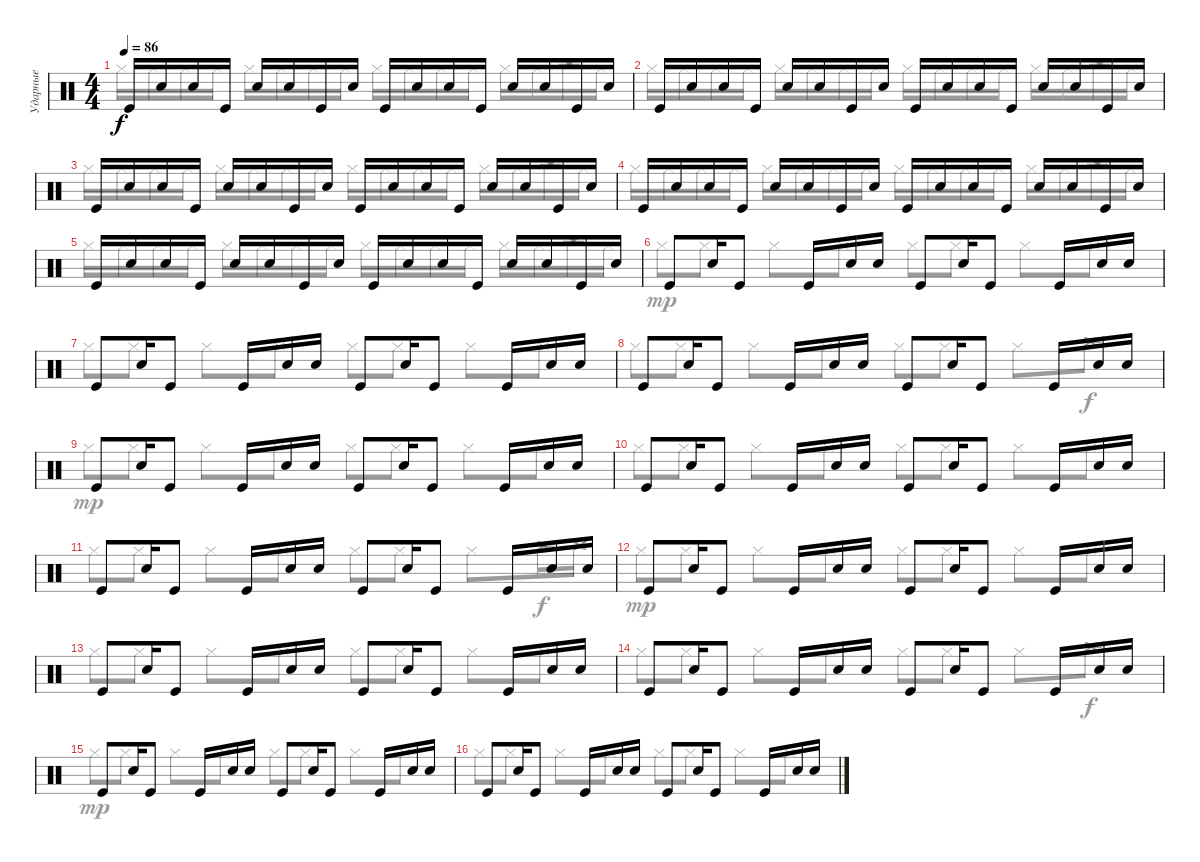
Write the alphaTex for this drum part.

\track ("Ударные" "Ударные") {instrument percussion}
\staff {score}
\articulation defaults
\voice
\ts (4 4)
\tempo 86
\clef neutral
\ks c "Kick (hit)".16{dy f} "Electric Snare (hit)".16 "Electric Snare (hit)".16 "Kick (hit)".16 "Electric Snare (hit)".16 "Electric Snare (hit)".16 "Kick (hit)".16 "Electric Snare (hit)".16 "Kick (hit)".16 "Electric Snare (hit)".16 "Electric Snare (hit)".16 "Kick (hit)".16 "Electric Snare (hit)".16 "Electric Snare (hit)".16 "Kick (hit)".16 "Electric Snare (hit)".16
|
"Kick (hit)".16 "Electric Snare (hit)".16 "Electric Snare (hit)".16 "Kick (hit)".16 "Electric Snare (hit)".16 "Electric Snare (hit)".16 "Kick (hit)".16 "Electric Snare (hit)".16 "Kick (hit)".16 "Electric Snare (hit)".16 "Electric Snare (hit)".16 "Kick (hit)".16 "Electric Snare (hit)".16 "Electric Snare (hit)".16 "Kick (hit)".16 "Electric Snare (hit)".16 |
"Kick (hit)".16 "Electric Snare (hit)".16 "Electric Snare (hit)".16 "Kick (hit)".16 "Electric Snare (hit)".16 "Electric Snare (hit)".16 "Kick (hit)".16 "Electric Snare (hit)".16 "Kick (hit)".16 "Electric Snare (hit)".16 "Electric Snare (hit)".16 "Kick (hit)".16 "Electric Snare (hit)".16 "Electric Snare (hit)".16 "Kick (hit)".16 "Electric Snare (hit)".16 |
"Kick (hit)".16 "Electric Snare (hit)".16 "Electric Snare (hit)".16 "Kick (hit)".16 "Electric Snare (hit)".16 "Electric Snare (hit)".16 "Kick (hit)".16 "Electric Snare (hit)".16 "Kick (hit)".16 "Electric Snare (hit)".16 "Electric Snare (hit)".16 "Kick (hit)".16 "Electric Snare (hit)".16 "Electric Snare (hit)".16 "Kick (hit)".16 "Electric Snare (hit)".16 |
"Kick (hit)".16 "Electric Snare (hit)".16 "Electric Snare (hit)".16 "Kick (hit)".16 "Electric Snare (hit)".16 "Electric Snare (hit)".16 "Kick (hit)".16 "Electric Snare (hit)".16 "Kick (hit)".16 "Electric Snare (hit)".16 "Electric Snare (hit)".16 "Kick (hit)".16 "Electric Snare (hit)".16 "Electric Snare (hit)".16 "Kick (hit)".16 "Electric Snare (hit)".16 |
"Kick (hit)".8 "Electric Snare (hit)".16 "Kick (hit)".8 "Kick (hit)".16 "Electric Snare (hit)".16 "Electric Snare (hit)".16 "Kick (hit)".8 "Electric Snare (hit)".16 "Kick (hit)".8 "Kick (hit)".16 "Electric Snare (hit)".16 "Electric Snare (hit)".16 |
"Kick (hit)".8 "Electric Snare (hit)".16 "Kick (hit)".8 "Kick (hit)".16 "Electric Snare (hit)".16 "Electric Snare (hit)".16 "Kick (hit)".8 "Electric Snare (hit)".16 "Kick (hit)".8 "Kick (hit)".16 "Electric Snare (hit)".16 "Electric Snare (hit)".16 |
"Kick (hit)".8 "Electric Snare (hit)".16 "Kick (hit)".8 "Kick (hit)".16 "Electric Snare (hit)".16 "Electric Snare (hit)".16 "Kick (hit)".8 "Electric Snare (hit)".16 "Kick (hit)".8 "Kick (hit)".16 "Electric Snare (hit)".16 "Electric Snare (hit)".16 |
"Kick (hit)".8 "Electric Snare (hit)".16 "Kick (hit)".8 "Kick (hit)".16 "Electric Snare (hit)".16 "Electric Snare (hit)".16 "Kick (hit)".8 "Electric Snare (hit)".16 "Kick (hit)".8 "Kick (hit)".16 "Electric Snare (hit)".16 "Electric Snare (hit)".16 |
"Kick (hit)".8 "Electric Snare (hit)".16 "Kick (hit)".8 "Kick (hit)".16 "Electric Snare (hit)".16 "Electric Snare (hit)".16 "Kick (hit)".8 "Electric Snare (hit)".16 "Kick (hit)".8 "Kick (hit)".16 "Electric Snare (hit)".16 "Electric Snare (hit)".16 |
"Kick (hit)".8 "Electric Snare (hit)".16 "Kick (hit)".8 "Kick (hit)".16 "Electric Snare (hit)".16 "Electric Snare (hit)".16 "Kick (hit)".8 "Electric Snare (hit)".16 "Kick (hit)".8 "Kick (hit)".16 "Electric Snare (hit)".16 "Electric Snare (hit)".16 |
"Kick (hit)".8 "Electric Snare (hit)".16 "Kick (hit)".8 "Kick (hit)".16 "Electric Snare (hit)".16 "Electric Snare (hit)".16 "Kick (hit)".8 "Electric Snare (hit)".16 "Kick (hit)".8 "Kick (hit)".16 "Electric Snare (hit)".16 "Electric Snare (hit)".16 |
"Kick (hit)".8 "Electric Snare (hit)".16 "Kick (hit)".8 "Kick (hit)".16 "Electric Snare (hit)".16 "Electric Snare (hit)".16 "Kick (hit)".8 "Electric Snare (hit)".16 "Kick (hit)".8 "Kick (hit)".16 "Electric Snare (hit)".16 "Electric Snare (hit)".16 |
"Kick (hit)".8 "Electric Snare (hit)".16 "Kick (hit)".8 "Kick (hit)".16 "Electric Snare (hit)".16 "Electric Snare (hit)".16 "Kick (hit)".8 "Electric Snare (hit)".16 "Kick (hit)".8 "Kick (hit)".16 "Electric Snare (hit)".16 "Electric Snare (hit)".16 |
"Kick (hit)".8 "Electric Snare (hit)".16 "Kick (hit)".8 "Kick (hit)".16 "Electric Snare (hit)".16 "Electric Snare (hit)".16 "Kick (hit)".8 "Electric Snare (hit)".16 "Kick (hit)".8 "Kick (hit)".16 "Electric Snare (hit)".16 "Electric Snare (hit)".16 |
"Kick (hit)".8 "Electric Snare (hit)".16 "Kick (hit)".8 "Kick (hit)".16 "Electric Snare (hit)".16 "Electric Snare (hit)".16 "Kick (hit)".8 "Electric Snare (hit)".16 "Kick (hit)".8 "Kick (hit)".16 "Electric Snare (hit)".16 "Electric Snare (hit)".16
\voice
\clef neutral
\ottava regular
\simile none
\ks c "Hi-Hat (closed)".16{dy f} "Hi-Hat (closed)".16 "Hi-Hat (closed)".16 "Hi-Hat (closed)".16 "Hi-Hat (closed)".16 "Hi-Hat (closed)".16 "Hi-Hat (closed)".16 "Hi-Hat (closed)".16 "Hi-Hat (closed)".16 "Hi-Hat (closed)".16 "Hi-Hat (closed)".16 "Hi-Hat (closed)".16 "Hi-Hat (closed)".16 "Hi-Hat (closed)".16 "Crash high (hit)".16 "Hi-Hat (closed)".16
|
"Hi-Hat (closed)".16 "Hi-Hat (closed)".16 "Hi-Hat (closed)".16 "Hi-Hat (closed)".16 "Hi-Hat (closed)".16 "Hi-Hat (closed)".16 "Hi-Hat (closed)".16 "Hi-Hat (closed)".16 "Hi-Hat (closed)".16 "Hi-Hat (closed)".16 "Hi-Hat (closed)".16 "Hi-Hat (closed)".16 "Hi-Hat (closed)".16 "Hi-Hat (closed)".16 "Crash high (hit)".16 "Hi-Hat (closed)".16 |
"Hi-Hat (closed)".16 "Hi-Hat (closed)".16 "Hi-Hat (closed)".16 "Hi-Hat (closed)".16 "Hi-Hat (closed)".16 "Hi-Hat (closed)".16 "Hi-Hat (closed)".16 "Hi-Hat (closed)".16 "Hi-Hat (closed)".16 "Hi-Hat (closed)".16 "Hi-Hat (closed)".16 "Hi-Hat (closed)".16 "Hi-Hat (closed)".16 "Hi-Hat (closed)".16 "Crash high (hit)".16 "Hi-Hat (closed)".16 |
"Hi-Hat (closed)".16 "Hi-Hat (closed)".16 "Hi-Hat (closed)".16 "Hi-Hat (closed)".16 "Hi-Hat (closed)".16 "Hi-Hat (closed)".16 "Hi-Hat (closed)".16 "Hi-Hat (closed)".16 "Hi-Hat (closed)".16 "Hi-Hat (closed)".16 "Hi-Hat (closed)".16 "Hi-Hat (closed)".16 "Hi-Hat (closed)".16 "Hi-Hat (closed)".16 "Crash high (hit)".16 "Hi-Hat (closed)".16 |
"Hi-Hat (closed)".16 "Hi-Hat (closed)".16 "Hi-Hat (closed)".16 "Hi-Hat (closed)".16 "Hi-Hat (closed)".16 "Hi-Hat (closed)".16 "Hi-Hat (closed)".16 "Hi-Hat (closed)".16 "Hi-Hat (closed)".16 "Hi-Hat (closed)".16 "Hi-Hat (closed)".16 "Hi-Hat (closed)".16 "Hi-Hat (closed)".16 "Hi-Hat (closed)".16 "Crash high (hit)".16 "Hi-Hat (closed)".16 |
"Hi-Hat (closed)".8{dy mp} "Hi-Hat (closed)".8 "Hi-Hat (closed)".8 "Hi-Hat (closed)".8 "Hi-Hat (closed)".8 "Hi-Hat (closed)".8 "Hi-Hat (closed)".8 "Hi-Hat (closed)".8 |
"Hi-Hat (closed)".8 "Hi-Hat (closed)".8 "Hi-Hat (closed)".8 "Hi-Hat (closed)".8 "Hi-Hat (closed)".8 "Hi-Hat (closed)".8 "Hi-Hat (closed)".8 "Hi-Hat (closed)".8 |
"Hi-Hat (closed)".8 "Hi-Hat (closed)".8 "Hi-Hat (closed)".8 "Hi-Hat (closed)".8 "Hi-Hat (closed)".8 "Hi-Hat (closed)".8 "Hi-Hat (closed)".8 "Crash high (hit)".8{dy f} |
"Hi-Hat (closed)".8{dy mp} "Hi-Hat (closed)".8 "Hi-Hat (closed)".8 "Hi-Hat (closed)".8 "Hi-Hat (closed)".8 "Hi-Hat (closed)".8 "Hi-Hat (closed)".8 "Hi-Hat (closed)".8 |
"Hi-Hat (closed)".8 "Hi-Hat (closed)".8 "Hi-Hat (closed)".8 "Hi-Hat (closed)".8 "Hi-Hat (closed)".8 "Hi-Hat (closed)".8 "Hi-Hat (closed)".8 "Hi-Hat (closed)".8 |
"Hi-Hat (closed)".8 "Hi-Hat (closed)".8 "Hi-Hat (closed)".8 "Hi-Hat (closed)".8 "Hi-Hat (closed)".8 "Hi-Hat (closed)".8 "Hi-Hat (closed)".8 "Crash high (hit)".16{dy f} "Crash high (hit)".16 |
"Hi-Hat (closed)".8{dy mp} "Hi-Hat (closed)".8 "Hi-Hat (closed)".8 "Hi-Hat (closed)".8 "Hi-Hat (closed)".8 "Hi-Hat (closed)".8 "Hi-Hat (closed)".8 "Hi-Hat (closed)".8 |
"Hi-Hat (closed)".8 "Hi-Hat (closed)".8 "Hi-Hat (closed)".8 "Hi-Hat (closed)".8 "Hi-Hat (closed)".8 "Hi-Hat (closed)".8 "Hi-Hat (closed)".8 "Hi-Hat (closed)".8 |
"Hi-Hat (closed)".8 "Hi-Hat (closed)".8 "Hi-Hat (closed)".8 "Hi-Hat (closed)".8 "Hi-Hat (closed)".8 "Hi-Hat (closed)".8 "Hi-Hat (closed)".8 "Crash high (hit)".8{dy f} |
"Hi-Hat (closed)".8{dy mp} "Hi-Hat (closed)".8 "Hi-Hat (closed)".8 "Hi-Hat (closed)".8 "Hi-Hat (closed)".8 "Hi-Hat (closed)".8 "Hi-Hat (closed)".8 "Hi-Hat (closed)".8 |
"Hi-Hat (closed)".8 "Hi-Hat (closed)".8 "Hi-Hat (closed)".8 "Hi-Hat (closed)".8 "Hi-Hat (closed)".8 "Hi-Hat (closed)".8 "Hi-Hat (closed)".8 "Hi-Hat (closed)".8
